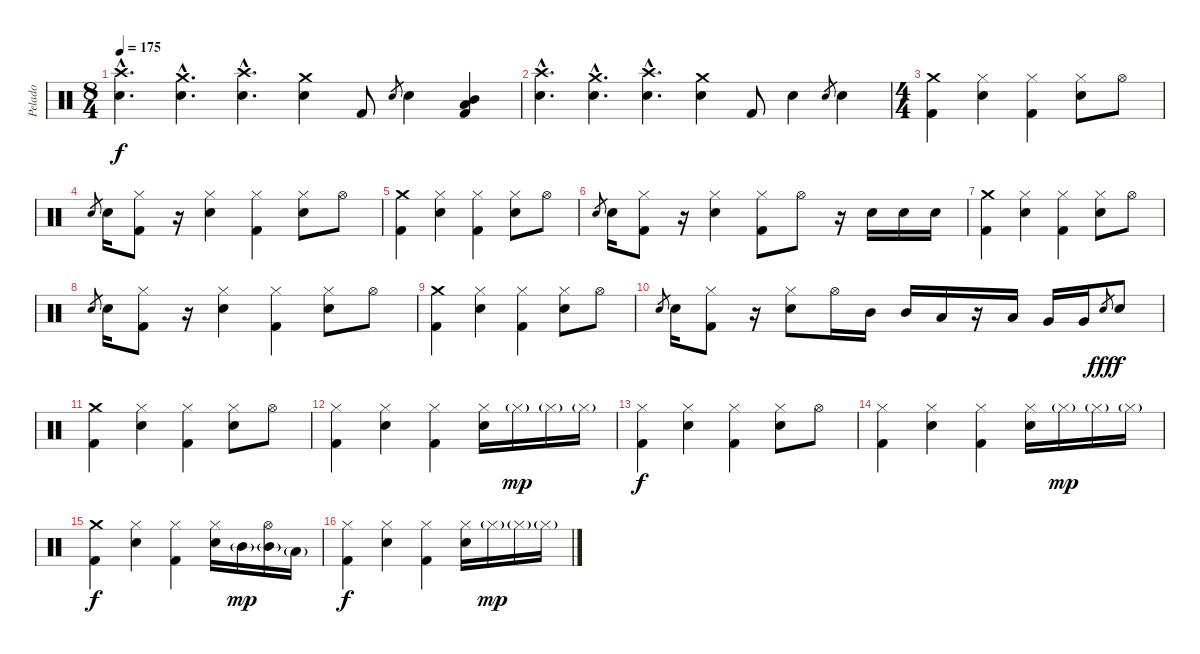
\track ("Pelado" "Pelado") {instrument percussion}
\staff {score}
\articulation defaults
\ts (8 4)
\tempo 175
\clef neutral
\ks c
("Crash high (hit)"{hac} "Electric Snare (hit)"{hac}).4{d dy f} ("Crash medium (hit)"{hac} "Electric Snare (hit)"{hac}).4{d} ("Crash high (hit)"{hac} "Electric Snare (hit)"{hac}).4{d} ("Crash medium (hit)" "Electric Snare (hit)").4 "Kick (hit) 2".8 "Electric Snare (hit)".8{gr} "Electric Snare (hit)".4 ("Mid Tom (hit)" "Low Tom (hit)" "Kick (hit) 2").4 |
("Crash high (hit)"{hac} "Electric Snare (hit)"{hac}).4{d} ("Crash medium (hit)"{hac} "Electric Snare (hit)"{hac}).4{d} ("Crash high (hit)"{hac} "Electric Snare (hit)"{hac}).4{d} ("Crash medium (hit)" "Electric Snare (hit)").4 "Kick (hit) 2".8 "Electric Snare (hit)".4 "Electric Snare (hit)".8{gr} "Electric Snare (hit)".4 |
\ts (4 4)
("Crash medium (hit)" "Kick (hit) 2").4 ("Hi-Hat (closed)" "Electric Snare (hit)").4 ("Hi-Hat (closed)" "Kick (hit) 2").4 ("Hi-Hat (closed)" "Electric Snare (hit)").8 "Hi-Hat (open)".8 |
"Electric Snare (hit)".8{gr} "Electric Snare (hit)".16 ("Hi-Hat (closed)" "Kick (hit) 2").8 r.16 ("Hi-Hat (closed)" "Electric Snare (hit)").4 ("Hi-Hat (closed)" "Kick (hit) 2").4 ("Hi-Hat (closed)" "Electric Snare (hit)").8 "Hi-Hat (open)".8 |
("Crash medium (hit)" "Kick (hit) 2").4 ("Hi-Hat (closed)" "Electric Snare (hit)").4 ("Hi-Hat (closed)" "Kick (hit) 2").4 ("Hi-Hat (closed)" "Electric Snare (hit)").8 "Hi-Hat (open)".8 |
"Electric Snare (hit)".8{gr} "Electric Snare (hit)".16 ("Hi-Hat (closed)" "Kick (hit) 2").8 r.16 ("Hi-Hat (closed)" "Electric Snare (hit)").4 ("Hi-Hat (closed)" "Kick (hit) 2").8 "Hi-Hat (open)".8 r.16 "Electric Snare (hit)".16 "Electric Snare (hit)".16 "Electric Snare (hit)".16 |
("Crash medium (hit)" "Kick (hit) 2").4 ("Hi-Hat (closed)" "Electric Snare (hit)").4 ("Hi-Hat (closed)" "Kick (hit) 2").4 ("Hi-Hat (closed)" "Electric Snare (hit)").8 "Hi-Hat (open)".8 |
"Electric Snare (hit)".8{gr} "Electric Snare (hit)".16 ("Hi-Hat (closed)" "Kick (hit) 2").8 r.16 ("Hi-Hat (closed)" "Electric Snare (hit)").4 ("Hi-Hat (closed)" "Kick (hit) 2").4 ("Hi-Hat (closed)" "Electric Snare (hit)").8 "Hi-Hat (open)".8 |
("Crash medium (hit)" "Kick (hit) 2").4 ("Hi-Hat (closed)" "Electric Snare (hit)").4 ("Hi-Hat (closed)" "Kick (hit) 2").4 ("Hi-Hat (closed)" "Electric Snare (hit)").8 "Hi-Hat (open)".8 |
"Electric Snare (hit)".8{gr} "Electric Snare (hit)".16 ("Hi-Hat (closed)" "Kick (hit) 2").8 r.16 ("Hi-Hat (closed)" "Electric Snare (hit)").8 "Hi-Hat (open)".16 "Mid Tom (hit)".16 "Mid Tom (hit)".16 "Low Tom (hit)".16 r.16 "Low Tom (hit)".16 "Very Low Tom (hit)".16 "Very Low Tom (hit)".16 "Electric Snare (hit)".8{gr dy fff} "Electric Snare (hit)".8{dy f} |
("Crash medium (hit)" "Kick (hit) 2").4 ("Hi-Hat (closed)" "Electric Snare (hit)").4 ("Hi-Hat (closed)" "Kick (hit) 2").4 ("Hi-Hat (closed)" "Electric Snare (hit)").8 "Hi-Hat (open)".8 |
("Hi-Hat (closed)" "Kick (hit) 2").4 ("Hi-Hat (closed)" "Electric Snare (hit)").4 ("Hi-Hat (closed)" "Kick (hit) 2").4 ("Hi-Hat (closed)" "Electric Snare (hit)").16 "Hi-Hat (closed)"{g}.16{dy mp} "Hi-Hat (closed)"{g}.16 "Hi-Hat (closed)"{g}.16 |
("Hi-Hat (closed)" "Kick (hit) 2").4{dy f} ("Hi-Hat (closed)" "Electric Snare (hit)").4 ("Hi-Hat (closed)" "Kick (hit) 2").4 ("Hi-Hat (closed)" "Electric Snare (hit)").8 "Hi-Hat (open)".8 |
("Hi-Hat (closed)" "Kick (hit) 2").4 ("Hi-Hat (closed)" "Electric Snare (hit)").4 ("Hi-Hat (closed)" "Kick (hit) 2").4 ("Hi-Hat (closed)" "Electric Snare (hit)").16 "Hi-Hat (closed)"{g}.16{dy mp} "Hi-Hat (closed)"{g}.16 "Hi-Hat (closed)"{g}.16 |
("Crash medium (hit)" "Kick (hit) 2").4{dy f} ("Hi-Hat (closed)" "Electric Snare (hit)").4 ("Hi-Hat (closed)" "Kick (hit) 2").4 ("Hi-Hat (closed)" "Electric Snare (hit)").16 "Mid Tom (hit)"{g}.16{dy mp} ("Hi-Hat (open)" "Mid Tom (hit)"{g}).16 "Low Tom (hit)"{g}.16 |
("Hi-Hat (closed)" "Kick (hit) 2").4{dy f} ("Hi-Hat (closed)" "Electric Snare (hit)").4 ("Hi-Hat (closed)" "Kick (hit) 2").4 ("Hi-Hat (closed)" "Electric Snare (hit)").16 "Hi-Hat (closed)"{g}.16{dy mp} "Hi-Hat (closed)"{g}.16 "Hi-Hat (closed)"{g}.16
